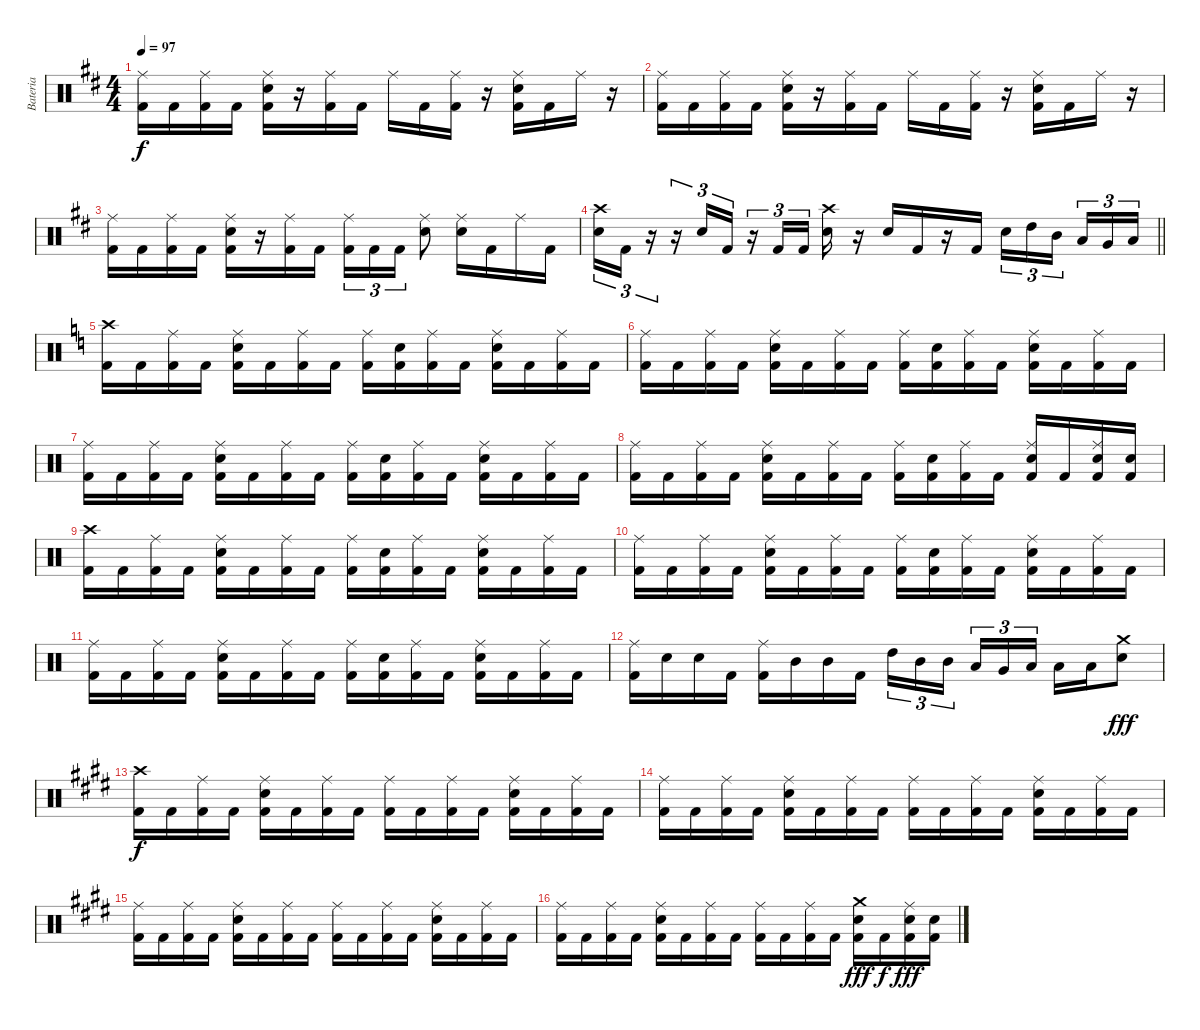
\track ("Bateria" "Bateria") {instrument percussion}
\staff {score}
\articulation defaults
\ts (4 4)
\tempo 97
\clef neutral
\ks d
("Kick (hit) 2" "Ride (middle)").16{dy f} "Kick (hit) 2".16 ("Kick (hit) 2" "Ride (middle)").16 "Kick (hit) 2".16 ("Kick (hit) 2" "Electric Snare (hit)" "Ride (middle)").16 r.16 ("Kick (hit) 2" "Ride (middle)").16 "Kick (hit) 2".16 "Ride (middle)".16 "Kick (hit) 2".16 ("Kick (hit) 2" "Ride (middle)").16 r.16 ("Kick (hit) 2" "Electric Snare (hit)" "Ride (middle)").16 "Kick (hit) 2".16 "Ride (middle)".16 r.16 |
("Kick (hit) 2" "Ride (middle)").16 "Kick (hit) 2".16 ("Kick (hit) 2" "Ride (middle)").16 "Kick (hit) 2".16 ("Kick (hit) 2" "Electric Snare (hit)" "Ride (middle)").16 r.16 ("Kick (hit) 2" "Ride (middle)").16 "Kick (hit) 2".16 "Ride (middle)".16 "Kick (hit) 2".16 ("Kick (hit) 2" "Ride (middle)").16 r.16 ("Kick (hit) 2" "Electric Snare (hit)" "Ride (middle)").16 "Kick (hit) 2".16 "Ride (middle)".16 r.16 |
("Kick (hit) 2" "Ride (middle)").16 "Kick (hit) 2".16 ("Kick (hit) 2" "Ride (middle)").16 "Kick (hit) 2".16 ("Kick (hit) 2" "Electric Snare (hit)" "Ride (middle)").16 r.16 ("Kick (hit) 2" "Ride (middle)").16 "Kick (hit) 2".16 ("Ride (middle)" "Kick (hit) 2").16{tu (3 2)} "Kick (hit) 2".16{tu (3 2)} "Kick (hit) 2".16{tu (3 2)} ("Ride (middle)" "Electric Snare (hit)").8 ("Ride (middle)" "Electric Snare (hit)").16 "Kick (hit) 2".16 "Ride (middle)".16 "Kick (hit) 2".16 |
\barLineRight lightlight
("Electric Snare (hit)" "Crash high (hit)").16{tu (3 2)} "Kick (hit) 2".16{tu (3 2)} r.16{tu (3 2)} r.16{tu (3 2)} "Electric Snare (hit)".16{tu (3 2)} "Kick (hit) 2".16{tu (3 2)} r.16{tu (3 2)} "Kick (hit) 2".16{tu (3 2)} "Kick (hit) 2".16{tu (3 2) beam splitsecondary} ("Electric Snare (hit)" "Crash high (hit)").16 r.16 "Electric Snare (hit)".16 "Kick (hit) 2".16 r.16 "Kick (hit) 2".16 "Electric Snare (hit)".16{tu (3 2)} "High Tom (hit)".16{tu (3 2)} "Mid Tom (hit)".16{tu (3 2) beam splitsecondary} "Low Tom (hit)".16{tu (3 2)} "Very Low Tom (hit)".16{tu (3 2)} "Low Floor Tom (hit)".16{tu (3 2)} |
\ks c
("Crash high (hit)" "Kick (hit) 2").16 "Kick (hit) 2".16 ("Ride (middle)" "Kick (hit) 2").16 "Kick (hit) 2".16 ("Ride (middle)" "Kick (hit) 2" "Electric Snare (hit)").16 "Kick (hit) 2".16 ("Ride (middle)" "Kick (hit) 2").16 "Kick (hit) 2".16 ("Ride (middle)" "Kick (hit) 2").16 ("Kick (hit) 2" "Electric Snare (hit)").16 ("Ride (middle)" "Kick (hit) 2").16 "Kick (hit) 2".16 ("Ride (middle)" "Kick (hit) 2" "Electric Snare (hit)").16 "Kick (hit) 2".16 ("Ride (middle)" "Kick (hit) 2").16 "Kick (hit) 2".16 |
("Ride (middle)" "Kick (hit) 2").16 "Kick (hit) 2".16 ("Ride (middle)" "Kick (hit) 2").16 "Kick (hit) 2".16 ("Ride (middle)" "Kick (hit) 2" "Electric Snare (hit)").16 "Kick (hit) 2".16 ("Ride (middle)" "Kick (hit) 2").16 "Kick (hit) 2".16 ("Ride (middle)" "Kick (hit) 2").16 ("Kick (hit) 2" "Electric Snare (hit)").16 ("Ride (middle)" "Kick (hit) 2").16 "Kick (hit) 2".16 ("Ride (middle)" "Kick (hit) 2" "Electric Snare (hit)").16 "Kick (hit) 2".16 ("Ride (middle)" "Kick (hit) 2").16 "Kick (hit) 2".16 |
("Ride (middle)" "Kick (hit) 2").16 "Kick (hit) 2".16 ("Ride (middle)" "Kick (hit) 2").16 "Kick (hit) 2".16 ("Ride (middle)" "Kick (hit) 2" "Electric Snare (hit)").16 "Kick (hit) 2".16 ("Ride (middle)" "Kick (hit) 2").16 "Kick (hit) 2".16 ("Ride (middle)" "Kick (hit) 2").16 ("Kick (hit) 2" "Electric Snare (hit)").16 ("Ride (middle)" "Kick (hit) 2").16 "Kick (hit) 2".16 ("Ride (middle)" "Kick (hit) 2" "Electric Snare (hit)").16 "Kick (hit) 2".16 ("Ride (middle)" "Kick (hit) 2").16 "Kick (hit) 2".16 |
("Ride (middle)" "Kick (hit) 2").16 "Kick (hit) 2".16 ("Ride (middle)" "Kick (hit) 2").16 "Kick (hit) 2".16 ("Ride (middle)" "Kick (hit) 2" "Electric Snare (hit)").16 "Kick (hit) 2".16 ("Ride (middle)" "Kick (hit) 2").16 "Kick (hit) 2".16 ("Ride (middle)" "Kick (hit) 2").16 ("Kick (hit) 2" "Electric Snare (hit)").16 ("Ride (middle)" "Kick (hit) 2").16 "Kick (hit) 2".16 ("Ride (middle)" "Kick (hit) 2" "Electric Snare (hit)").16 "Kick (hit) 2".16 ("Ride (middle)" "Kick (hit) 2" "Electric Snare (hit)").16 ("Kick (hit) 2" "Electric Snare (hit)").16 |
("Crash high (hit)" "Kick (hit) 2").16 "Kick (hit) 2".16 ("Ride (middle)" "Kick (hit) 2").16 "Kick (hit) 2".16 ("Ride (middle)" "Kick (hit) 2" "Electric Snare (hit)").16 "Kick (hit) 2".16 ("Ride (middle)" "Kick (hit) 2").16 "Kick (hit) 2".16 ("Ride (middle)" "Kick (hit) 2").16 ("Kick (hit) 2" "Electric Snare (hit)").16 ("Ride (middle)" "Kick (hit) 2").16 "Kick (hit) 2".16 ("Ride (middle)" "Kick (hit) 2" "Electric Snare (hit)").16 "Kick (hit) 2".16 ("Ride (middle)" "Kick (hit) 2").16 "Kick (hit) 2".16 |
("Ride (middle)" "Kick (hit) 2").16 "Kick (hit) 2".16 ("Ride (middle)" "Kick (hit) 2").16 "Kick (hit) 2".16 ("Ride (middle)" "Kick (hit) 2" "Electric Snare (hit)").16 "Kick (hit) 2".16 ("Ride (middle)" "Kick (hit) 2").16 "Kick (hit) 2".16 ("Ride (middle)" "Kick (hit) 2").16 ("Kick (hit) 2" "Electric Snare (hit)").16 ("Ride (middle)" "Kick (hit) 2").16 "Kick (hit) 2".16 ("Ride (middle)" "Kick (hit) 2" "Electric Snare (hit)").16 "Kick (hit) 2".16 ("Ride (middle)" "Kick (hit) 2").16 "Kick (hit) 2".16 |
("Ride (middle)" "Kick (hit) 2").16 "Kick (hit) 2".16 ("Ride (middle)" "Kick (hit) 2").16 "Kick (hit) 2".16 ("Ride (middle)" "Kick (hit) 2" "Electric Snare (hit)").16 "Kick (hit) 2".16 ("Ride (middle)" "Kick (hit) 2").16 "Kick (hit) 2".16 ("Ride (middle)" "Kick (hit) 2").16 ("Kick (hit) 2" "Electric Snare (hit)").16 ("Ride (middle)" "Kick (hit) 2").16 "Kick (hit) 2".16 ("Ride (middle)" "Kick (hit) 2" "Electric Snare (hit)").16 "Kick (hit) 2".16 ("Ride (middle)" "Kick (hit) 2").16 "Kick (hit) 2".16 |
("Ride (middle)" "Kick (hit) 2").16 "Electric Snare (hit)".16 "Electric Snare (hit)".16 "Kick (hit) 2".16 ("Ride (middle)" "Kick (hit) 2").16 "Mid Tom (hit)".16 "Mid Tom (hit)".16 "Kick (hit) 2".16 "High Tom (hit)".16{tu (3 2)} "Mid Tom (hit)".16{tu (3 2)} "Mid Tom (hit)".16{tu (3 2) beam splitsecondary} "Low Tom (hit)".16{tu (3 2)} "Very Low Tom (hit)".16{tu (3 2)} "Low Floor Tom (hit)".16{tu (3 2)} "Low Floor Tom (hit)".16 "Low Floor Tom (hit)".16 ("Crash medium (hit)" "Electric Snare (hit)").8{dy fff} |
\ks e
("Crash high (hit)" "Kick (hit) 2").16{dy f} "Kick (hit) 2".16 ("Ride (middle)" "Kick (hit) 2").16 "Kick (hit) 2".16 ("Ride (middle)" "Kick (hit) 2" "Electric Snare (hit)").16 "Kick (hit) 2".16 ("Ride (middle)" "Kick (hit) 2").16 "Kick (hit) 2".16 ("Ride (middle)" "Kick (hit) 2").16 "Kick (hit) 2".16 ("Ride (middle)" "Kick (hit) 2").16 "Kick (hit) 2".16 ("Ride (middle)" "Kick (hit) 2" "Electric Snare (hit)").16 "Kick (hit) 2".16 ("Ride (middle)" "Kick (hit) 2").16 "Kick (hit) 2".16 |
("Ride (middle)" "Kick (hit) 2").16 "Kick (hit) 2".16 ("Ride (middle)" "Kick (hit) 2").16 "Kick (hit) 2".16 ("Ride (middle)" "Kick (hit) 2" "Electric Snare (hit)").16 "Kick (hit) 2".16 ("Ride (middle)" "Kick (hit) 2").16 "Kick (hit) 2".16 ("Ride (middle)" "Kick (hit) 2").16 "Kick (hit) 2".16 ("Ride (middle)" "Kick (hit) 2").16 "Kick (hit) 2".16 ("Ride (middle)" "Kick (hit) 2" "Electric Snare (hit)").16 "Kick (hit) 2".16 ("Ride (middle)" "Kick (hit) 2").16 "Kick (hit) 2".16 |
("Ride (middle)" "Kick (hit) 2").16 "Kick (hit) 2".16 ("Ride (middle)" "Kick (hit) 2").16 "Kick (hit) 2".16 ("Ride (middle)" "Kick (hit) 2" "Electric Snare (hit)").16 "Kick (hit) 2".16 ("Ride (middle)" "Kick (hit) 2").16 "Kick (hit) 2".16 ("Ride (middle)" "Kick (hit) 2").16 "Kick (hit) 2".16 ("Ride (middle)" "Kick (hit) 2").16 "Kick (hit) 2".16 ("Ride (middle)" "Kick (hit) 2" "Electric Snare (hit)").16 "Kick (hit) 2".16 ("Ride (middle)" "Kick (hit) 2").16 "Kick (hit) 2".16 |
("Ride (middle)" "Kick (hit) 2").16 "Kick (hit) 2".16 ("Ride (middle)" "Kick (hit) 2").16 "Kick (hit) 2".16 ("Ride (middle)" "Kick (hit) 2" "Electric Snare (hit)").16 "Kick (hit) 2".16 ("Ride (middle)" "Kick (hit) 2").16 "Kick (hit) 2".16 ("Ride (middle)" "Kick (hit) 2").16 "Kick (hit) 2".16 ("Ride (middle)" "Kick (hit) 2").16 "Kick (hit) 2".16 ("Kick (hit) 2" "Electric Snare (hit)" "Crash medium (hit)").16{dy fff} "Kick (hit) 2".16{dy f} ("Ride (middle)" "Kick (hit) 2" "Electric Snare (hit)").16{dy fff} ("Kick (hit) 2" "Electric Snare (hit)").16
